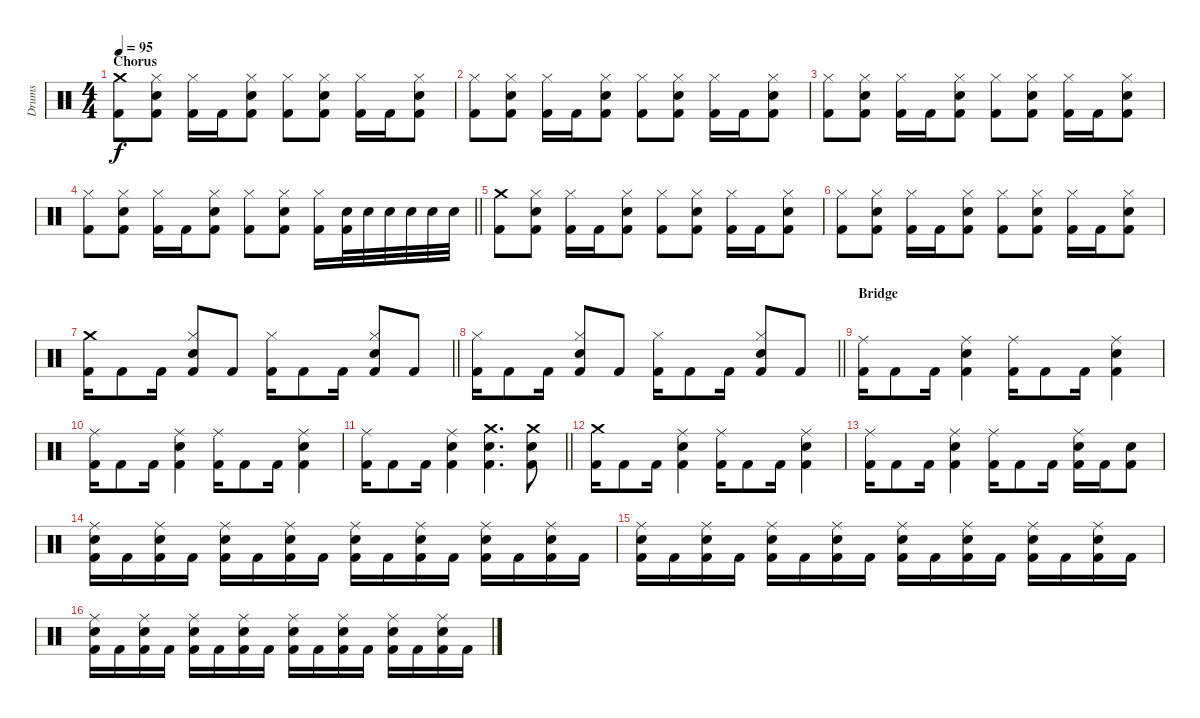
\track ("Drums" "Drums") {instrument percussion}
\staff {score}
\articulation defaults
\ts (4 4)
\section ("" "Chorus")
\tempo 95
\clef neutral
\ks c
("Crash medium (hit)" "Kick (hit) 2").8{dy f} ("Hi-Hat (closed)" "Snare (hit) 2" "Kick (hit) 2").8 ("Hi-Hat (closed)" "Kick (hit) 2").16 "Kick (hit) 2".16 ("Hi-Hat (closed)" "Snare (hit) 2" "Kick (hit) 2").8 ("Hi-Hat (closed)" "Kick (hit) 2").8 ("Hi-Hat (closed)" "Snare (hit) 2" "Kick (hit) 2").8 ("Hi-Hat (closed)" "Kick (hit) 2").16 "Kick (hit) 2".16 ("Hi-Hat (closed)" "Snare (hit) 2" "Kick (hit) 2").8 |
("Hi-Hat (closed)" "Kick (hit) 2").8 ("Hi-Hat (closed)" "Snare (hit) 2" "Kick (hit) 2").8 ("Hi-Hat (closed)" "Kick (hit) 2").16 "Kick (hit) 2".16 ("Hi-Hat (closed)" "Snare (hit) 2" "Kick (hit) 2").8 ("Hi-Hat (closed)" "Kick (hit) 2").8 ("Hi-Hat (closed)" "Snare (hit) 2" "Kick (hit) 2").8 ("Hi-Hat (closed)" "Kick (hit) 2").16 "Kick (hit) 2".16 ("Hi-Hat (closed)" "Snare (hit) 2" "Kick (hit) 2").8 |
("Hi-Hat (closed)" "Kick (hit) 2").8 ("Hi-Hat (closed)" "Snare (hit) 2" "Kick (hit) 2").8 ("Hi-Hat (closed)" "Kick (hit) 2").16 "Kick (hit) 2".16 ("Hi-Hat (closed)" "Snare (hit) 2" "Kick (hit) 2").8 ("Hi-Hat (closed)" "Kick (hit) 2").8 ("Hi-Hat (closed)" "Snare (hit) 2" "Kick (hit) 2").8 ("Hi-Hat (closed)" "Kick (hit) 2").16 "Kick (hit) 2".16 ("Hi-Hat (closed)" "Snare (hit) 2" "Kick (hit) 2").8 |
\barLineRight lightlight
("Hi-Hat (closed)" "Kick (hit) 2").8 ("Hi-Hat (closed)" "Snare (hit) 2" "Kick (hit) 2").8 ("Hi-Hat (closed)" "Kick (hit) 2").16 "Kick (hit) 2".16 ("Hi-Hat (closed)" "Snare (hit) 2" "Kick (hit) 2").8 ("Hi-Hat (closed)" "Kick (hit) 2").8 ("Hi-Hat (closed)" "Snare (hit) 2" "Kick (hit) 2").8 ("Hi-Hat (closed)" "Kick (hit) 2").16 ("Snare (hit) 2" "Kick (hit) 2").32 "Snare (hit) 2".32 "Snare (hit) 2".32 "Snare (hit) 2".32 "Snare (hit) 2".32 "Snare (hit) 2".32 |
("Crash medium (hit)" "Kick (hit) 2").8 ("Hi-Hat (closed)" "Snare (hit) 2" "Kick (hit) 2").8 ("Hi-Hat (closed)" "Kick (hit) 2").16 "Kick (hit) 2".16 ("Hi-Hat (closed)" "Snare (hit) 2" "Kick (hit) 2").8 ("Hi-Hat (closed)" "Kick (hit) 2").8 ("Hi-Hat (closed)" "Snare (hit) 2" "Kick (hit) 2").8 ("Hi-Hat (closed)" "Kick (hit) 2").16 "Kick (hit) 2".16 ("Hi-Hat (closed)" "Snare (hit) 2" "Kick (hit) 2").8 |
("Hi-Hat (closed)" "Kick (hit) 2").8 ("Hi-Hat (closed)" "Snare (hit) 2" "Kick (hit) 2").8 ("Hi-Hat (closed)" "Kick (hit) 2").16 "Kick (hit) 2".16 ("Hi-Hat (closed)" "Snare (hit) 2" "Kick (hit) 2").8 ("Hi-Hat (closed)" "Kick (hit) 2").8 ("Hi-Hat (closed)" "Snare (hit) 2" "Kick (hit) 2").8 ("Hi-Hat (closed)" "Kick (hit) 2").16 "Kick (hit) 2".16 ("Hi-Hat (closed)" "Snare (hit) 2" "Kick (hit) 2").8 |
\barLineRight lightlight
("Crash medium (hit)" "Kick (hit) 2").16 "Kick (hit) 2".8 "Kick (hit) 2".16 ("Hi-Hat (closed)" "Snare (hit) 2" "Kick (hit) 2").8 "Kick (hit) 2".8 ("Hi-Hat (closed)" "Kick (hit) 2").16 "Kick (hit) 2".8 "Kick (hit) 2".16 ("Hi-Hat (closed)" "Snare (hit) 2" "Kick (hit) 2").8 "Kick (hit) 2".8 |
\barLineRight lightlight
("Hi-Hat (closed)" "Kick (hit) 2").16 "Kick (hit) 2".8 "Kick (hit) 2".16 ("Hi-Hat (closed)" "Snare (hit) 2" "Kick (hit) 2").8 "Kick (hit) 2".8 ("Hi-Hat (closed)" "Kick (hit) 2").16 "Kick (hit) 2".8 "Kick (hit) 2".16 ("Hi-Hat (closed)" "Snare (hit) 2" "Kick (hit) 2").8 "Kick (hit) 2".8 |
\section ("" "Bridge")
("Ride (middle)" "Kick (hit) 2").16 "Kick (hit) 2".8 "Kick (hit) 2".16 ("Ride (middle)" "Snare (hit) 2" "Kick (hit) 2").4 ("Ride (middle)" "Kick (hit) 2").16 "Kick (hit) 2".8 "Kick (hit) 2".16 ("Ride (middle)" "Snare (hit) 2" "Kick (hit) 2").4 |
("Ride (middle)" "Kick (hit) 2").16 "Kick (hit) 2".8 "Kick (hit) 2".16 ("Ride (middle)" "Snare (hit) 2" "Kick (hit) 2").4 ("Ride (middle)" "Kick (hit) 2").16 "Kick (hit) 2".8 "Kick (hit) 2".16 ("Ride (middle)" "Snare (hit) 2" "Kick (hit) 2").4 |
\barLineRight lightlight
("Ride (middle)" "Kick (hit) 2").16 "Kick (hit) 2".8 "Kick (hit) 2".16 ("Ride (middle)" "Snare (hit) 2" "Kick (hit) 2").4 ("Crash medium (hit)" "Snare (hit) 2" "Kick (hit) 2").4{d} ("Crash medium (hit)" "Snare (hit) 2" "Kick (hit) 2").8 |
("Crash medium (hit)" "Kick (hit) 2").16 "Kick (hit) 2".8 "Kick (hit) 2".16 ("Ride (middle)" "Snare (hit) 2" "Kick (hit) 2").4 ("Ride (middle)" "Kick (hit) 2").16 "Kick (hit) 2".8 "Kick (hit) 2".16 ("Ride (middle)" "Snare (hit) 2" "Kick (hit) 2").4 |
("Ride (middle)" "Kick (hit) 2").16 "Kick (hit) 2".8 "Kick (hit) 2".16 ("Ride (middle)" "Snare (hit) 2" "Kick (hit) 2").4 ("Ride (middle)" "Kick (hit) 2").16 "Kick (hit) 2".8 "Kick (hit) 2".16 ("Ride (middle)" "Snare (hit) 2" "Kick (hit) 2").16 "Kick (hit) 2".16 ("Snare (hit) 2" "Kick (hit) 2").8 |
("Ride (middle)" "Snare (hit) 2" "Kick (hit) 2").16 "Kick (hit) 2".16 ("Ride (middle)" "Snare (hit) 2" "Kick (hit) 2").16 "Kick (hit) 2".16 ("Ride (middle)" "Snare (hit) 2" "Kick (hit) 2").16 "Kick (hit) 2".16 ("Ride (middle)" "Snare (hit) 2" "Kick (hit) 2").16 "Kick (hit) 2".16 ("Ride (middle)" "Snare (hit) 2" "Kick (hit) 2").16 "Kick (hit) 2".16 ("Ride (middle)" "Snare (hit) 2" "Kick (hit) 2").16 "Kick (hit) 2".16 ("Ride (middle)" "Snare (hit) 2" "Kick (hit) 2").16 "Kick (hit) 2".16 ("Ride (middle)" "Snare (hit) 2" "Kick (hit) 2").16 "Kick (hit) 2".16 |
("Ride (middle)" "Snare (hit) 2" "Kick (hit) 2").16 "Kick (hit) 2".16 ("Ride (middle)" "Snare (hit) 2" "Kick (hit) 2").16 "Kick (hit) 2".16 ("Ride (middle)" "Snare (hit) 2" "Kick (hit) 2").16 "Kick (hit) 2".16 ("Ride (middle)" "Snare (hit) 2" "Kick (hit) 2").16 "Kick (hit) 2".16 ("Ride (middle)" "Snare (hit) 2" "Kick (hit) 2").16 "Kick (hit) 2".16 ("Ride (middle)" "Snare (hit) 2" "Kick (hit) 2").16 "Kick (hit) 2".16 ("Ride (middle)" "Snare (hit) 2" "Kick (hit) 2").16 "Kick (hit) 2".16 ("Ride (middle)" "Snare (hit) 2" "Kick (hit) 2").16 "Kick (hit) 2".16 |
("Ride (middle)" "Snare (hit) 2" "Kick (hit) 2").16 "Kick (hit) 2".16 ("Ride (middle)" "Snare (hit) 2" "Kick (hit) 2").16 "Kick (hit) 2".16 ("Ride (middle)" "Snare (hit) 2" "Kick (hit) 2").16 "Kick (hit) 2".16 ("Ride (middle)" "Snare (hit) 2" "Kick (hit) 2").16 "Kick (hit) 2".16 ("Ride (middle)" "Snare (hit) 2" "Kick (hit) 2").16 "Kick (hit) 2".16 ("Ride (middle)" "Snare (hit) 2" "Kick (hit) 2").16 "Kick (hit) 2".16 ("Ride (middle)" "Snare (hit) 2" "Kick (hit) 2").16 "Kick (hit) 2".16 ("Ride (middle)" "Snare (hit) 2" "Kick (hit) 2").16 "Kick (hit) 2".16
